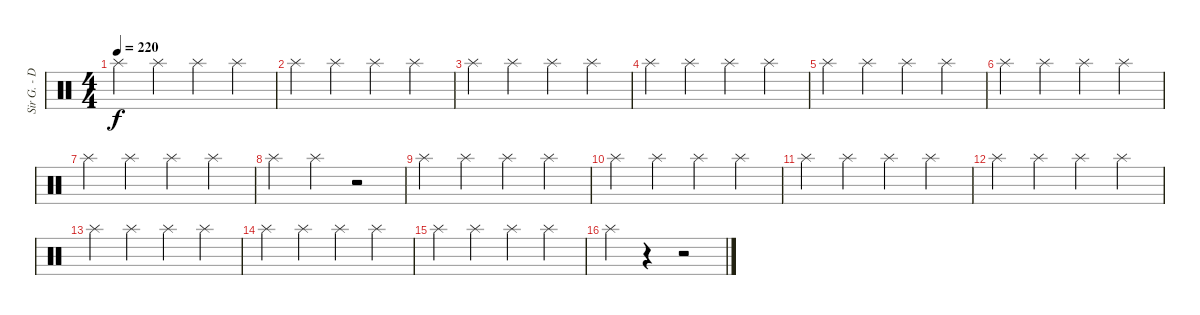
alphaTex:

\track ("Sir G. - Drums" "Sir G. - D") {instrument percussion}
\staff {score}
\articulation defaults
\ts (4 4)
\tempo 220
\clef neutral
\ks c "Splash (hit)".4{dy f} "Splash (hit)".4 "Splash (hit)".4 "Splash (hit)".4
|
"Splash (hit)".4 "Splash (hit)".4 "Splash (hit)".4 "Splash (hit)".4 |
"Splash (hit)".4 "Splash (hit)".4 "Splash (hit)".4 "Splash (hit)".4 |
"Splash (hit)".4 "Splash (hit)".4 "Splash (hit)".4 "Splash (hit)".4 |
"Splash (hit)".4 "Splash (hit)".4 "Splash (hit)".4 "Splash (hit)".4 |
"Splash (hit)".4 "Splash (hit)".4 "Splash (hit)".4 "Splash (hit)".4 |
"Splash (hit)".4 "Splash (hit)".4 "Splash (hit)".4 "Splash (hit)".4 |
"Splash (hit)".4 "Splash (hit)".4 r.2 |
"Splash (hit)".4 "Splash (hit)".4 "Splash (hit)".4 "Splash (hit)".4 |
"Splash (hit)".4 "Splash (hit)".4 "Splash (hit)".4 "Splash (hit)".4 |
"Splash (hit)".4 "Splash (hit)".4 "Splash (hit)".4 "Splash (hit)".4 |
"Splash (hit)".4 "Splash (hit)".4 "Splash (hit)".4 "Splash (hit)".4 |
"Splash (hit)".4 "Splash (hit)".4 "Splash (hit)".4 "Splash (hit)".4 |
"Splash (hit)".4 "Splash (hit)".4 "Splash (hit)".4 "Splash (hit)".4 |
"Splash (hit)".4 "Splash (hit)".4 "Splash (hit)".4 "Splash (hit)".4 |
"Splash (hit)".4 r.4 r.2
